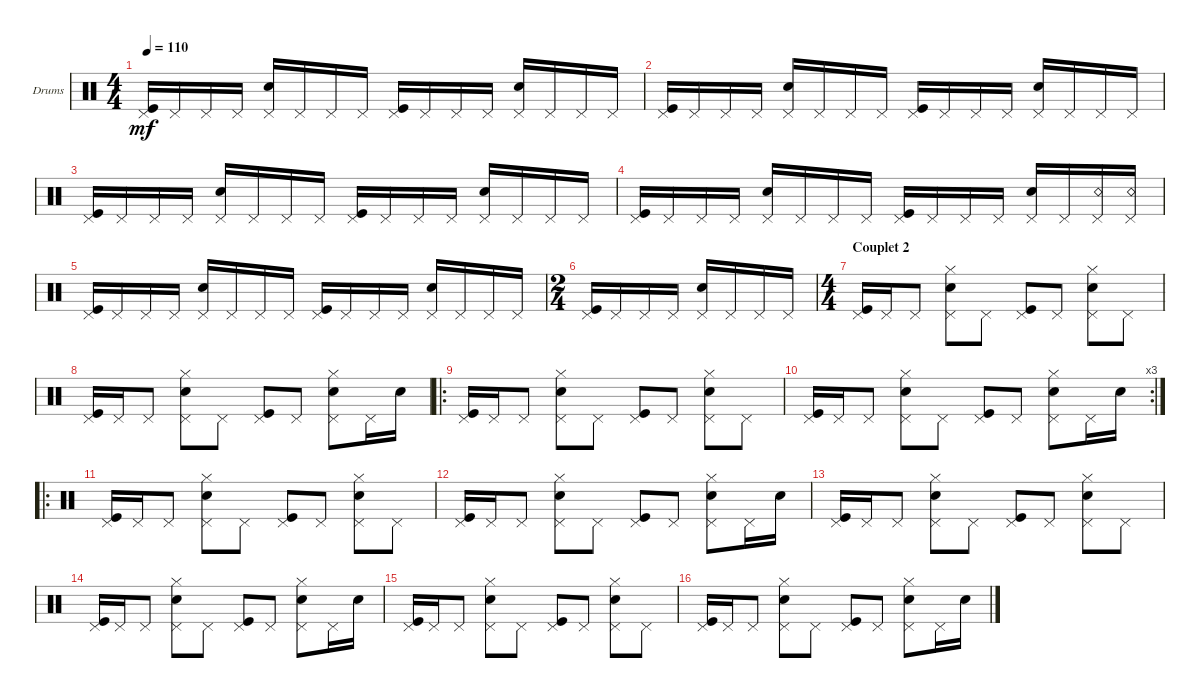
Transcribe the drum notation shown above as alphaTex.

\defaultSystemsLayout 4
\bracketExtendMode groupsimilarinstruments
\firstSystemTrackNameOrientation horizontal
\otherSystemsTrackNameOrientation horizontal
\track ("Drumkit" "Drums") {instrument percussion}
\staff {score}
\articulation defaults
\ts (4 4)
\tempo 110
\clef neutral
\ks c
("Pedal Hi-Hat (hit)" "Kick (hit)").16{dy mf} "Pedal Hi-Hat (hit)".16 "Pedal Hi-Hat (hit)".16 "Pedal Hi-Hat (hit)".16 ("Pedal Hi-Hat (hit)" "Snare (hit) 2").16 "Pedal Hi-Hat (hit)".16 "Pedal Hi-Hat (hit)".16 "Pedal Hi-Hat (hit)".16 ("Pedal Hi-Hat (hit)" "Kick (hit)").16 "Pedal Hi-Hat (hit)".16 "Pedal Hi-Hat (hit)".16 "Pedal Hi-Hat (hit)".16 ("Pedal Hi-Hat (hit)" "Snare (hit) 2").16 "Pedal Hi-Hat (hit)".16 "Pedal Hi-Hat (hit)".16 "Pedal Hi-Hat (hit)".16 |
("Pedal Hi-Hat (hit)" "Kick (hit)").16 "Pedal Hi-Hat (hit)".16 "Pedal Hi-Hat (hit)".16 "Pedal Hi-Hat (hit)".16 ("Pedal Hi-Hat (hit)" "Snare (hit) 2").16 "Pedal Hi-Hat (hit)".16 "Pedal Hi-Hat (hit)".16 "Pedal Hi-Hat (hit)".16 ("Pedal Hi-Hat (hit)" "Kick (hit)").16 "Pedal Hi-Hat (hit)".16 "Pedal Hi-Hat (hit)".16 "Pedal Hi-Hat (hit)".16 ("Pedal Hi-Hat (hit)" "Snare (hit) 2").16 "Pedal Hi-Hat (hit)".16 "Pedal Hi-Hat (hit)".16 "Pedal Hi-Hat (hit)".16 |
("Pedal Hi-Hat (hit)" "Kick (hit)").16 "Pedal Hi-Hat (hit)".16 "Pedal Hi-Hat (hit)".16 "Pedal Hi-Hat (hit)".16 ("Pedal Hi-Hat (hit)" "Snare (hit) 2").16 "Pedal Hi-Hat (hit)".16 "Pedal Hi-Hat (hit)".16 "Pedal Hi-Hat (hit)".16 ("Pedal Hi-Hat (hit)" "Kick (hit)").16 "Pedal Hi-Hat (hit)".16 "Pedal Hi-Hat (hit)".16 "Pedal Hi-Hat (hit)".16 ("Pedal Hi-Hat (hit)" "Snare (hit) 2").16 "Pedal Hi-Hat (hit)".16 "Pedal Hi-Hat (hit)".16 "Pedal Hi-Hat (hit)".16 |
("Pedal Hi-Hat (hit)" "Kick (hit)").16 "Pedal Hi-Hat (hit)".16 "Pedal Hi-Hat (hit)".16 "Pedal Hi-Hat (hit)".16 ("Pedal Hi-Hat (hit)" "Snare (hit) 2").16 "Pedal Hi-Hat (hit)".16 "Pedal Hi-Hat (hit)".16 "Pedal Hi-Hat (hit)".16 ("Pedal Hi-Hat (hit)" "Kick (hit)").16 "Pedal Hi-Hat (hit)".16 "Pedal Hi-Hat (hit)".16 "Pedal Hi-Hat (hit)".16 ("Pedal Hi-Hat (hit)" "Snare (hit) 2").16 "Pedal Hi-Hat (hit)".16 ("Pedal Hi-Hat (hit)" "Snare (rim shot)").16 ("Pedal Hi-Hat (hit)" "Snare (rim shot)").16 |
("Pedal Hi-Hat (hit)" "Kick (hit)").16 "Pedal Hi-Hat (hit)".16 "Pedal Hi-Hat (hit)".16 "Pedal Hi-Hat (hit)".16 ("Pedal Hi-Hat (hit)" "Snare (hit) 2").16 "Pedal Hi-Hat (hit)".16 "Pedal Hi-Hat (hit)".16 "Pedal Hi-Hat (hit)".16 ("Pedal Hi-Hat (hit)" "Kick (hit)").16 "Pedal Hi-Hat (hit)".16 "Pedal Hi-Hat (hit)".16 "Pedal Hi-Hat (hit)".16 ("Pedal Hi-Hat (hit)" "Snare (hit) 2").16 "Pedal Hi-Hat (hit)".16 "Pedal Hi-Hat (hit)".16 "Pedal Hi-Hat (hit)".16 |
\ts (2 4)
("Pedal Hi-Hat (hit)" "Kick (hit)").16 "Pedal Hi-Hat (hit)".16 "Pedal Hi-Hat (hit)".16 "Pedal Hi-Hat (hit)".16 ("Pedal Hi-Hat (hit)" "Snare (hit) 2").16 "Pedal Hi-Hat (hit)".16 "Pedal Hi-Hat (hit)".16 "Pedal Hi-Hat (hit)".16 |
\ts (4 4)
\section ("" "Couplet 2")
("Kick (hit)" "Pedal Hi-Hat (hit)").16 "Pedal Hi-Hat (hit)".16 "Pedal Hi-Hat (hit)".8 ("Snare (hit) 2" "Hi-Hat (closed)" "Pedal Hi-Hat (hit)").8 "Pedal Hi-Hat (hit)".8 ("Kick (hit)" "Pedal Hi-Hat (hit)").8 "Pedal Hi-Hat (hit)".8 ("Snare (hit) 2" "Hi-Hat (closed)" "Pedal Hi-Hat (hit)").8 "Pedal Hi-Hat (hit)".8 |
("Kick (hit)" "Pedal Hi-Hat (hit)").16 "Pedal Hi-Hat (hit)".16 "Pedal Hi-Hat (hit)".8 ("Snare (hit) 2" "Hi-Hat (closed)" "Pedal Hi-Hat (hit)").8 "Pedal Hi-Hat (hit)".8 ("Kick (hit)" "Pedal Hi-Hat (hit)").8 "Pedal Hi-Hat (hit)".8 ("Snare (hit) 2" "Hi-Hat (closed)" "Pedal Hi-Hat (hit)").8 "Pedal Hi-Hat (hit)".16 "Snare (hit) 2".16 |
\ro
("Kick (hit)" "Pedal Hi-Hat (hit)").16 "Pedal Hi-Hat (hit)".16 "Pedal Hi-Hat (hit)".8 ("Snare (hit) 2" "Hi-Hat (closed)" "Pedal Hi-Hat (hit)").8 "Pedal Hi-Hat (hit)".8 ("Kick (hit)" "Pedal Hi-Hat (hit)").8 "Pedal Hi-Hat (hit)".8 ("Snare (hit) 2" "Hi-Hat (closed)" "Pedal Hi-Hat (hit)").8 "Pedal Hi-Hat (hit)".8 |
\rc 3
("Kick (hit)" "Pedal Hi-Hat (hit)").16 "Pedal Hi-Hat (hit)".16 "Pedal Hi-Hat (hit)".8 ("Snare (hit) 2" "Hi-Hat (closed)" "Pedal Hi-Hat (hit)").8 "Pedal Hi-Hat (hit)".8 ("Kick (hit)" "Pedal Hi-Hat (hit)").8 "Pedal Hi-Hat (hit)".8 ("Snare (hit) 2" "Hi-Hat (closed)" "Pedal Hi-Hat (hit)").8 "Pedal Hi-Hat (hit)".16 "Snare (hit) 2".16 |
\ro
("Kick (hit)" "Pedal Hi-Hat (hit)").16 "Pedal Hi-Hat (hit)".16 "Pedal Hi-Hat (hit)".8 ("Snare (hit) 2" "Hi-Hat (closed)" "Pedal Hi-Hat (hit)").8 "Pedal Hi-Hat (hit)".8 ("Kick (hit)" "Pedal Hi-Hat (hit)").8 "Pedal Hi-Hat (hit)".8 ("Snare (hit) 2" "Hi-Hat (closed)" "Pedal Hi-Hat (hit)").8 "Pedal Hi-Hat (hit)".8 |
("Kick (hit)" "Pedal Hi-Hat (hit)").16 "Pedal Hi-Hat (hit)".16 "Pedal Hi-Hat (hit)".8 ("Snare (hit) 2" "Hi-Hat (closed)" "Pedal Hi-Hat (hit)").8 "Pedal Hi-Hat (hit)".8 ("Kick (hit)" "Pedal Hi-Hat (hit)").8 "Pedal Hi-Hat (hit)".8 ("Snare (hit) 2" "Hi-Hat (closed)" "Pedal Hi-Hat (hit)").8 "Pedal Hi-Hat (hit)".16 "Snare (hit) 2".16 |
("Kick (hit)" "Pedal Hi-Hat (hit)").16 "Pedal Hi-Hat (hit)".16 "Pedal Hi-Hat (hit)".8 ("Snare (hit) 2" "Hi-Hat (closed)" "Pedal Hi-Hat (hit)").8 "Pedal Hi-Hat (hit)".8 ("Kick (hit)" "Pedal Hi-Hat (hit)").8 "Pedal Hi-Hat (hit)".8 ("Snare (hit) 2" "Hi-Hat (closed)" "Pedal Hi-Hat (hit)").8 "Pedal Hi-Hat (hit)".8 |
("Kick (hit)" "Pedal Hi-Hat (hit)").16 "Pedal Hi-Hat (hit)".16 "Pedal Hi-Hat (hit)".8 ("Snare (hit) 2" "Hi-Hat (closed)" "Pedal Hi-Hat (hit)").8 "Pedal Hi-Hat (hit)".8 ("Kick (hit)" "Pedal Hi-Hat (hit)").8 "Pedal Hi-Hat (hit)".8 ("Snare (hit) 2" "Hi-Hat (closed)" "Pedal Hi-Hat (hit)").8 "Pedal Hi-Hat (hit)".16 "Snare (hit) 2".16 |
("Kick (hit)" "Pedal Hi-Hat (hit)").16 "Pedal Hi-Hat (hit)".16 "Pedal Hi-Hat (hit)".8 ("Snare (hit) 2" "Hi-Hat (closed)" "Pedal Hi-Hat (hit)").8 "Pedal Hi-Hat (hit)".8 ("Kick (hit)" "Pedal Hi-Hat (hit)").8 "Pedal Hi-Hat (hit)".8 ("Snare (hit) 2" "Hi-Hat (closed)" "Pedal Hi-Hat (hit)").8 "Pedal Hi-Hat (hit)".8 |
("Kick (hit)" "Pedal Hi-Hat (hit)").16 "Pedal Hi-Hat (hit)".16 "Pedal Hi-Hat (hit)".8 ("Snare (hit) 2" "Hi-Hat (closed)" "Pedal Hi-Hat (hit)").8 "Pedal Hi-Hat (hit)".8 ("Kick (hit)" "Pedal Hi-Hat (hit)").8 "Pedal Hi-Hat (hit)".8 ("Snare (hit) 2" "Hi-Hat (closed)" "Pedal Hi-Hat (hit)").8 "Pedal Hi-Hat (hit)".16 "Snare (hit) 2".16
